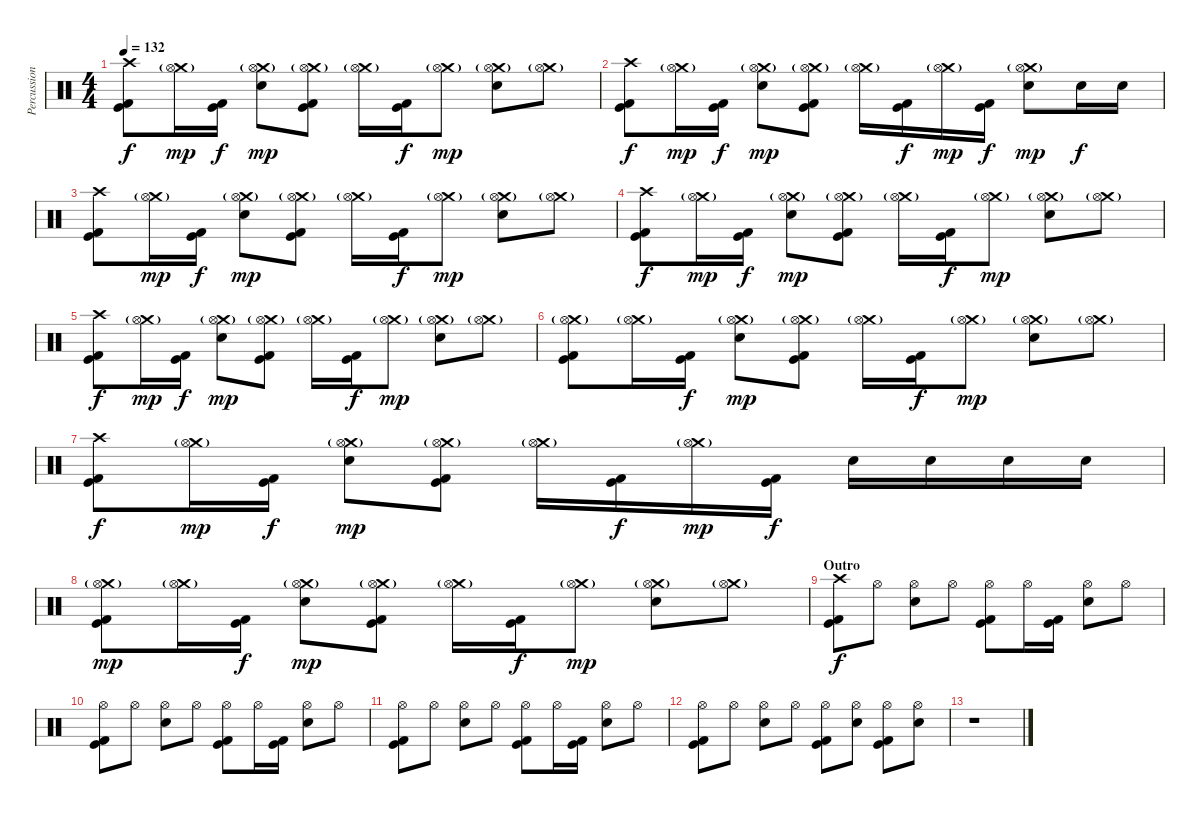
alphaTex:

\track ("Percussion" "Percussion") {instrument percussion}
\staff {score}
\articulation defaults
\ts (4 4)
\tempo 132
\clef neutral
\ks c
("Crash high (hit)" "Kick (hit)" "Kick (hit) 2").8{dy f} ("Crash medium (hit)"{g} "Hi-Hat (open)").16{dy mp} ("Kick (hit)" "Kick (hit) 2").16{dy f} ("Crash medium (hit)"{g} "Hi-Hat (open)" "Electric Snare (hit)").8{dy mp} ("Crash medium (hit)"{g} "Hi-Hat (open)" "Kick (hit)" "Kick (hit) 2").8 ("Crash medium (hit)"{g} "Hi-Hat (open)").16 ("Kick (hit)" "Kick (hit) 2").16{dy f} ("Crash medium (hit)"{g} "Hi-Hat (open)").8{dy mp} ("Crash medium (hit)"{g} "Hi-Hat (open)" "Electric Snare (hit)").8 ("Crash medium (hit)"{g} "Hi-Hat (open)").8 |
("Crash high (hit)" "Kick (hit)" "Kick (hit) 2").8{dy f} ("Crash medium (hit)"{g} "Hi-Hat (open)").16{dy mp} ("Kick (hit)" "Kick (hit) 2").16{dy f} ("Crash medium (hit)"{g} "Hi-Hat (open)" "Electric Snare (hit)").8{dy mp} ("Crash medium (hit)"{g} "Hi-Hat (open)" "Kick (hit)" "Kick (hit) 2").8 ("Crash medium (hit)"{g} "Hi-Hat (open)").16 ("Kick (hit)" "Kick (hit) 2").16{dy f} ("Crash medium (hit)"{g} "Hi-Hat (open)").16{dy mp} ("Kick (hit)" "Kick (hit) 2").16{dy f} ("Crash medium (hit)"{g} "Hi-Hat (open)" "Electric Snare (hit)").8{dy mp} "Electric Snare (hit)".16{dy f} "Electric Snare (hit)".16 |
("Crash high (hit)" "Kick (hit)" "Kick (hit) 2").8 ("Crash medium (hit)"{g} "Hi-Hat (open)").16{dy mp} ("Kick (hit)" "Kick (hit) 2").16{dy f} ("Crash medium (hit)"{g} "Hi-Hat (open)" "Electric Snare (hit)").8{dy mp} ("Crash medium (hit)"{g} "Hi-Hat (open)" "Kick (hit)" "Kick (hit) 2").8 ("Crash medium (hit)"{g} "Hi-Hat (open)").16 ("Kick (hit)" "Kick (hit) 2").16{dy f} ("Crash medium (hit)"{g} "Hi-Hat (open)").8{dy mp} ("Crash medium (hit)"{g} "Hi-Hat (open)" "Electric Snare (hit)").8 ("Crash medium (hit)"{g} "Hi-Hat (open)").8 |
("Crash high (hit)" "Kick (hit)" "Kick (hit) 2").8{dy f} ("Crash medium (hit)"{g} "Hi-Hat (open)").16{dy mp} ("Kick (hit)" "Kick (hit) 2").16{dy f} ("Crash medium (hit)"{g} "Hi-Hat (open)" "Electric Snare (hit)").8{dy mp} ("Crash medium (hit)"{g} "Hi-Hat (open)" "Kick (hit)" "Kick (hit) 2").8 ("Crash medium (hit)"{g} "Hi-Hat (open)").16 ("Kick (hit)" "Kick (hit) 2").16{dy f} ("Crash medium (hit)"{g} "Hi-Hat (open)").8{dy mp} ("Crash medium (hit)"{g} "Hi-Hat (open)" "Electric Snare (hit)").8 ("Crash medium (hit)"{g} "Hi-Hat (open)").8 |
("Crash high (hit)" "Kick (hit)" "Kick (hit) 2").8{dy f} ("Crash medium (hit)"{g} "Hi-Hat (open)").16{dy mp} ("Kick (hit)" "Kick (hit) 2").16{dy f} ("Crash medium (hit)"{g} "Hi-Hat (open)" "Electric Snare (hit)").8{dy mp} ("Crash medium (hit)"{g} "Hi-Hat (open)" "Kick (hit)" "Kick (hit) 2").8 ("Crash medium (hit)"{g} "Hi-Hat (open)").16 ("Kick (hit)" "Kick (hit) 2").16{dy f} ("Crash medium (hit)"{g} "Hi-Hat (open)").8{dy mp} ("Crash medium (hit)"{g} "Hi-Hat (open)" "Electric Snare (hit)").8 ("Crash medium (hit)"{g} "Hi-Hat (open)").8 |
("Crash medium (hit)"{g} "Hi-Hat (open)" "Kick (hit)" "Kick (hit) 2").8 ("Crash medium (hit)"{g} "Hi-Hat (open)").16 ("Kick (hit)" "Kick (hit) 2").16{dy f} ("Crash medium (hit)"{g} "Hi-Hat (open)" "Electric Snare (hit)").8{dy mp} ("Crash medium (hit)"{g} "Hi-Hat (open)" "Kick (hit)" "Kick (hit) 2").8 ("Crash medium (hit)"{g} "Hi-Hat (open)").16 ("Kick (hit)" "Kick (hit) 2").16{dy f} ("Crash medium (hit)"{g} "Hi-Hat (open)").8{dy mp} ("Crash medium (hit)"{g} "Hi-Hat (open)" "Electric Snare (hit)").8 ("Crash medium (hit)"{g} "Hi-Hat (open)").8 |
("Crash high (hit)" "Kick (hit)" "Kick (hit) 2").8{dy f} ("Crash medium (hit)"{g} "Hi-Hat (open)").16{dy mp} ("Kick (hit)" "Kick (hit) 2").16{dy f} ("Crash medium (hit)"{g} "Hi-Hat (open)" "Electric Snare (hit)").8{dy mp} ("Crash medium (hit)"{g} "Hi-Hat (open)" "Kick (hit)" "Kick (hit) 2").8 ("Crash medium (hit)"{g} "Hi-Hat (open)").16 ("Kick (hit)" "Kick (hit) 2").16{dy f} ("Crash medium (hit)"{g} "Hi-Hat (open)").16{dy mp} ("Kick (hit)" "Kick (hit) 2").16{dy f} "Electric Snare (hit)".16 "Electric Snare (hit)".16 "Electric Snare (hit)".16 "Electric Snare (hit)".16 |
("Crash medium (hit)"{g} "Hi-Hat (open)" "Kick (hit)" "Kick (hit) 2").8{dy mp} ("Crash medium (hit)"{g} "Hi-Hat (open)").16 ("Kick (hit)" "Kick (hit) 2").16{dy f} ("Crash medium (hit)"{g} "Hi-Hat (open)" "Electric Snare (hit)").8{dy mp} ("Crash medium (hit)"{g} "Hi-Hat (open)" "Kick (hit)" "Kick (hit) 2").8 ("Crash medium (hit)"{g} "Hi-Hat (open)").16 ("Kick (hit)" "Kick (hit) 2").16{dy f} ("Crash medium (hit)"{g} "Hi-Hat (open)").8{dy mp} ("Crash medium (hit)"{g} "Hi-Hat (open)" "Electric Snare (hit)").8 ("Crash medium (hit)"{g} "Hi-Hat (open)").8 |
\section ("" "Outro")
("Crash high (hit)" "Kick (hit)" "Kick (hit) 2").8{dy f} "Hi-Hat (open)".8 ("Hi-Hat (open)" "Electric Snare (hit)").8 "Hi-Hat (open)".8 ("Hi-Hat (open)" "Kick (hit)" "Kick (hit) 2").8 "Hi-Hat (open)".16 ("Kick (hit)" "Kick (hit) 2").16 ("Hi-Hat (open)" "Electric Snare (hit)").8 "Hi-Hat (open)".8 |
("Hi-Hat (open)" "Kick (hit)" "Kick (hit) 2").8 "Hi-Hat (open)".8 ("Hi-Hat (open)" "Electric Snare (hit)").8 "Hi-Hat (open)".8 ("Hi-Hat (open)" "Kick (hit)" "Kick (hit) 2").8 "Hi-Hat (open)".16 ("Kick (hit)" "Kick (hit) 2").16 ("Hi-Hat (open)" "Electric Snare (hit)").8 "Hi-Hat (open)".8 |
("Hi-Hat (open)" "Kick (hit)" "Kick (hit) 2").8 "Hi-Hat (open)".8 ("Hi-Hat (open)" "Electric Snare (hit)").8 "Hi-Hat (open)".8 ("Hi-Hat (open)" "Kick (hit)" "Kick (hit) 2").8 "Hi-Hat (open)".16 ("Kick (hit)" "Kick (hit) 2").16 ("Hi-Hat (open)" "Electric Snare (hit)").8 "Hi-Hat (open)".8 |
("Hi-Hat (open)" "Kick (hit)" "Kick (hit) 2").8 "Hi-Hat (open)".8 ("Hi-Hat (open)" "Electric Snare (hit)").8 "Hi-Hat (open)".8 ("Hi-Hat (open)" "Kick (hit)" "Kick (hit) 2").8 ("Hi-Hat (open)" "Electric Snare (hit)").8 ("Hi-Hat (open)" "Kick (hit)" "Kick (hit) 2").8 ("Hi-Hat (open)" "Electric Snare (hit)").8 |
r.1
